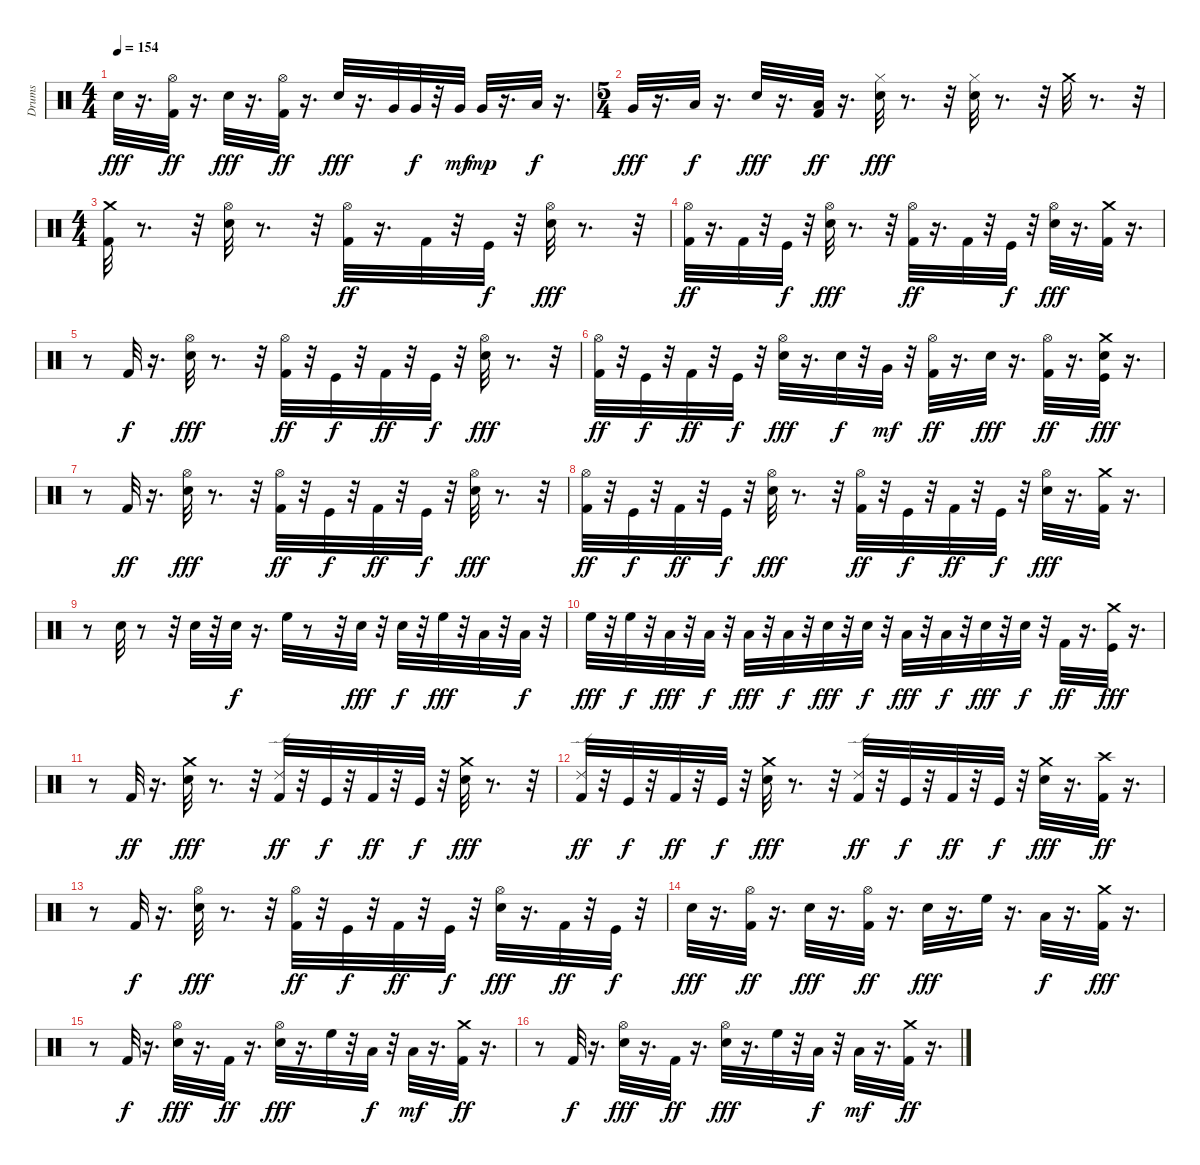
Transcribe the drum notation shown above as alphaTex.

\track ("Drums" "Drums") {instrument percussion}
\staff {score}
\articulation defaults
\ts (4 4)
\tempo 154
\clef neutral
\ks c "Snare (hit) 2".32{dy fff}
r.16{d} ("Kick (hit) 2" "Hi-Hat (open)").32{dy ff} r.16{d} "Snare (hit) 2".32{dy fff} r.16{d} ("Hi-Hat (open)" "Kick (hit) 2").32{dy ff} r.16{d} "Snare (hit) 2".32{dy fff} r.16{d} "Very Low Tom (hit)".32 "Very Low Tom (hit)".32{dy f} r.32 "Very Low Tom (hit)".32{dy mf} "Very Low Tom (hit)".32{dy mp} r.16{d} "Low Floor Tom (hit)".32{dy f} r.16{d} |
\ts (5 4)
"Very Low Tom (hit)".32{dy fff} r.16{d} "Low Floor Tom (hit)".32{dy f} r.16{d} "Snare (hit) 2".32{dy fff} r.16{d} ("Kick (hit) 2" "Low Floor Tom (hit)").32{dy ff} r.16{d} ("Hi-Hat (closed)" "Snare (hit) 2").32{dy fff} r.8{d} r.32 ("Hi-Hat (closed)" "Snare (hit) 2").32 r.8{d} r.32 "Crash medium (hit)".32 r.8{d} r.32 |
\ts (4 4)
("Kick (hit) 2" "Crash medium (hit)").32 r.8{d} r.32 ("Snare (hit) 2" "Hi-Hat (open)").32 r.8{d} r.32 ("Kick (hit) 2" "Hi-Hat (open)").32{dy ff} r.16{d} "Kick (hit) 2".32 r.32 "Kick (hit)".32{dy f} r.32 ("Snare (hit) 2" "Hi-Hat (open)").32{dy fff} r.8{d} r.32 |
("Kick (hit) 2" "Hi-Hat (open)").32{dy ff} r.16{d} "Kick (hit) 2".32 r.32 "Kick (hit)".32{dy f} r.32 ("Snare (hit) 2" "Hi-Hat (open)").32{dy fff} r.8{d} r.32 ("Kick (hit) 2" "Hi-Hat (open)").32{dy ff} r.16{d} "Kick (hit) 2".32 r.32 "Kick (hit)".32{dy f} r.32 ("Snare (hit) 2" "Hi-Hat (open)").32{dy fff} r.16{d} ("Kick (hit) 2" "Crash medium (hit)").32 r.16{d} |
r.8 "Kick (hit) 2".32{dy f} r.16{d} ("Snare (hit) 2" "Hi-Hat (open)").32{dy fff} r.8{d} r.32 ("Kick (hit) 2" "Hi-Hat (open)").32{dy ff} r.32 "Kick (hit)".32{dy f} r.32 "Kick (hit) 2".32{dy ff} r.32 "Kick (hit)".32{dy f} r.32 ("Snare (hit) 2" "Hi-Hat (open)").32{dy fff} r.8{d} r.32 |
("Kick (hit) 2" "Hi-Hat (open)").32{dy ff} r.32 "Kick (hit)".32{dy f} r.32 "Kick (hit) 2".32{dy ff} r.32 "Kick (hit)".32{dy f} r.32 ("Snare (hit) 2" "Hi-Hat (open)").32{dy fff} r.16{d} "Snare (hit) 2".32{dy f} r.32 "Very Low Tom (hit)".32{dy mf} r.32 ("Kick (hit) 2" "Hi-Hat (open)").32{dy ff} r.16{d} "Snare (hit) 2".32{dy fff} r.16{d} ("Kick (hit) 2" "Hi-Hat (open)").32{dy ff} r.16{d} ("Snare (hit) 2" "Kick (hit)" "Crash medium (hit)").32{dy fff} r.16{d} |
r.8 "Kick (hit) 2".32{dy ff} r.16{d} ("Snare (hit) 2" "Hi-Hat (open)").32{dy fff} r.8{d} r.32 ("Kick (hit) 2" "Hi-Hat (open)").32{dy ff} r.32 "Kick (hit)".32{dy f} r.32 "Kick (hit) 2".32{dy ff} r.32 "Kick (hit)".32{dy f} r.32 ("Snare (hit) 2" "Hi-Hat (open)").32{dy fff} r.8{d} r.32 |
("Kick (hit) 2" "Hi-Hat (open)").32{dy ff} r.32 "Kick (hit)".32{dy f} r.32 "Kick (hit) 2".32{dy ff} r.32 "Kick (hit)".32{dy f} r.32 ("Snare (hit) 2" "Hi-Hat (open)").32{dy fff} r.8{d} r.32 ("Kick (hit) 2" "Hi-Hat (open)").32{dy ff} r.32 "Kick (hit)".32{dy f} r.32 "Kick (hit) 2".32{dy ff} r.32 "Kick (hit)".32{dy f} r.32 ("Snare (hit) 2" "Hi-Hat (open)").32{dy fff} r.16{d} ("Kick (hit) 2" "Crash medium (hit)").32 r.16{d} |
r.8 "Snare (hit) 2".32 r.8 r.32 "Snare (hit) 2".32 r.32 "Snare (hit) 2".32{dy f} r.16{d} "High Floor Tom (hit)".32 r.8 r.32 "Snare (hit) 2".32{dy fff} r.32 "Snare (hit) 2".32{dy f} r.32 "High Floor Tom (hit)".32{dy fff} r.32 "Low Tom (hit)".32 r.32 "Low Tom (hit)".32{dy f} r.32 |
"High Floor Tom (hit)".32{dy fff} r.32 "High Floor Tom (hit)".32{dy f} r.32 "Low Tom (hit)".32{dy fff} r.32 "Low Tom (hit)".32{dy f} r.32 "Low Floor Tom (hit)".32{dy fff} r.32 "Low Floor Tom (hit)".32{dy f} r.32 "Snare (hit) 2".32{dy fff} r.32 "Snare (hit) 2".32{dy f} r.32 "Low Floor Tom (hit)".32{dy fff} r.32 "Low Floor Tom (hit)".32{dy f} r.32 "Snare (hit) 2".32{dy fff} r.32 "Snare (hit) 2".32{dy f} r.32 "Kick (hit) 2".32{dy ff} r.16{d} ("Crash medium (hit)" "Kick (hit)").32{dy fff} r.16{d} |
r.8 "Kick (hit) 2".32{dy ff} r.16{d} ("Crash medium (hit)" "Snare (hit) 2").32{dy fff} r.8{d} r.32 ("Ride (edge) 2" "Kick (hit) 2").32{dy ff} r.32 "Kick (hit)".32{dy f} r.32 "Kick (hit) 2".32{dy ff} r.32 "Kick (hit)".32{dy f} r.32 ("Crash medium (hit)" "Snare (hit) 2").32{dy fff} r.8{d} r.32 |
("Kick (hit) 2" "Ride (edge) 2").32{dy ff} r.32 "Kick (hit)".32{dy f} r.32 "Kick (hit) 2".32{dy ff} r.32 "Kick (hit)".32{dy f} r.32 ("Snare (hit) 2" "Crash medium (hit)").32{dy fff} r.8{d} r.32 ("Kick (hit) 2" "Ride (edge) 2").32{dy ff} r.32 "Kick (hit)".32{dy f} r.32 "Kick (hit) 2".32{dy ff} r.32 "Kick (hit)".32{dy f} r.32 ("Snare (hit) 2" "Crash medium (hit)").32{dy fff} r.16{d} ("Kick (hit) 2" "Crash high (hit)").32{dy ff} r.16{d} |
r.8 "Kick (hit) 2".32{dy f} r.16{d} ("Snare (hit) 2" "Hi-Hat (open)").32{dy fff} r.8{d} r.32 ("Kick (hit) 2" "Hi-Hat (open)").32{dy ff} r.32 "Kick (hit)".32{dy f} r.32 "Kick (hit) 2".32{dy ff} r.32 "Kick (hit)".32{dy f} r.32 ("Snare (hit) 2" "Hi-Hat (open)").32{dy fff} r.16{d} "Kick (hit) 2".32{dy ff} r.32 "Kick (hit)".32{dy f} r.32 |
"Snare (hit) 2".32{dy fff} r.16{d} ("Kick (hit) 2" "Hi-Hat (open)").32{dy ff} r.16{d} "Snare (hit) 2".32{dy fff} r.16{d} ("Kick (hit) 2" "Hi-Hat (open)").32{dy ff} r.16{d} "Snare (hit) 2".32{dy fff} r.16{d} "High Floor Tom (hit)".32 r.16{d} "Low Tom (hit)".32{dy f} r.16{d} ("Kick (hit) 2" "Crash medium (hit)").32{dy fff} r.16{d} |
r.8 "Kick (hit) 2".32{dy f} r.16{d} ("Snare (hit) 2" "Hi-Hat (open)").32{dy fff} r.16{d} "Kick (hit) 2".32{dy ff} r.16{d} ("Snare (hit) 2" "Hi-Hat (open)").32{dy fff} r.16{d} "High Floor Tom (hit)".32 r.32 "Low Tom (hit)".32{dy f} r.32 "Low Floor Tom (hit)".32{dy mf} r.16{d} ("Crash medium (hit)" "Kick (hit) 2").32{dy ff} r.16{d} |
r.8 "Kick (hit) 2".32{dy f} r.16{d} ("Hi-Hat (open)" "Snare (hit) 2").32{dy fff} r.16{d} "Kick (hit) 2".32{dy ff} r.16{d} ("Snare (hit) 2" "Hi-Hat (open)").32{dy fff} r.16{d} "High Floor Tom (hit)".32 r.32 "Low Tom (hit)".32{dy f} r.32 "Low Floor Tom (hit)".32{dy mf} r.16{d} ("Crash medium (hit)" "Kick (hit) 2").32{dy ff} r.16{d}
